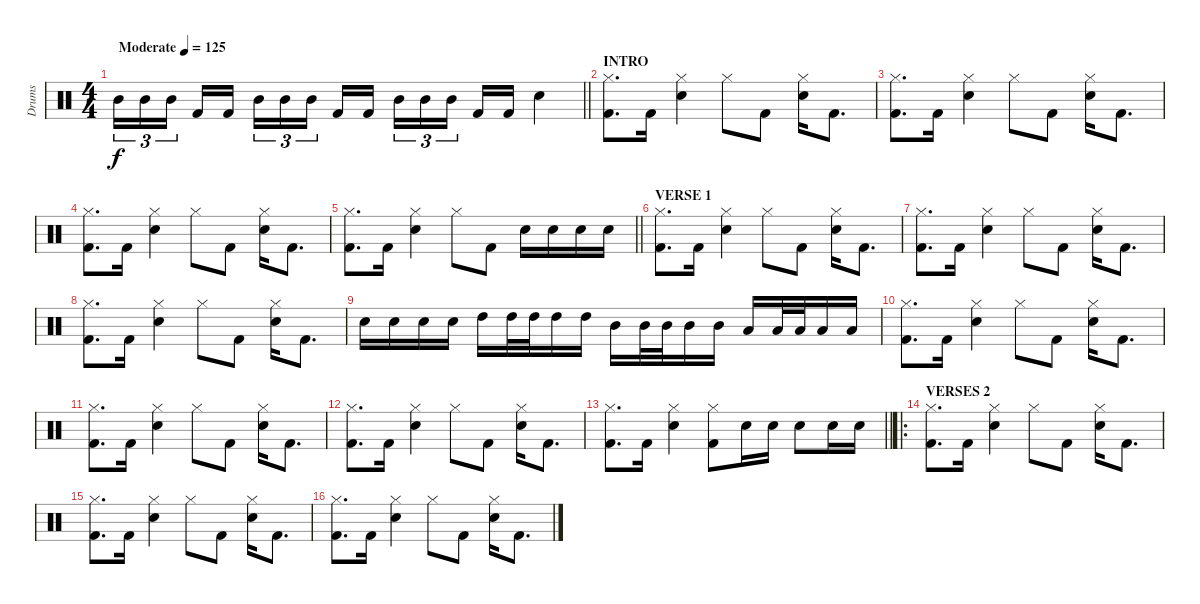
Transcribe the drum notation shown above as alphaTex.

\track ("Drums" "Drums") {instrument percussion}
\staff {score}
\articulation defaults
\ts (4 4)
\tempo (125 "Moderate")
\clef neutral
\barLineRight lightlight
\ks aminor "Mid Tom (hit)".16{tu (3 2) dy f} "Mid Tom (hit)".16{tu (3 2)} "Mid Tom (hit)".16{tu (3 2) beam splitsecondary} "Kick (hit) 2".16 "Kick (hit) 2".16 "Mid Tom (hit)".16{tu (3 2)} "Mid Tom (hit)".16{tu (3 2)} "Mid Tom (hit)".16{tu (3 2) beam splitsecondary} "Kick (hit) 2".16 "Kick (hit) 2".16 "Mid Tom (hit)".16{tu (3 2)} "Mid Tom (hit)".16{tu (3 2)} "Mid Tom (hit)".16{tu (3 2) beam splitsecondary} "Kick (hit) 2".16 "Kick (hit) 2".16 "Electric Snare (hit)".4
|
\section ("" "INTRO")
("Hi-Hat (closed)" "Kick (hit) 2").8{d} "Kick (hit) 2".16 ("Hi-Hat (closed)" "Electric Snare (hit)").4 "Hi-Hat (closed)".8 "Kick (hit) 2".8 ("Hi-Hat (closed)" "Electric Snare (hit)").16 "Kick (hit) 2".8{d} |
("Hi-Hat (closed)" "Kick (hit) 2").8{d} "Kick (hit) 2".16 ("Hi-Hat (closed)" "Electric Snare (hit)").4 "Hi-Hat (closed)".8 "Kick (hit) 2".8 ("Hi-Hat (closed)" "Electric Snare (hit)").16 "Kick (hit) 2".8{d} |
("Hi-Hat (closed)" "Kick (hit) 2").8{d} "Kick (hit) 2".16 ("Hi-Hat (closed)" "Electric Snare (hit)").4 "Hi-Hat (closed)".8 "Kick (hit) 2".8 ("Hi-Hat (closed)" "Electric Snare (hit)").16 "Kick (hit) 2".8{d} |
\barLineRight lightlight
("Hi-Hat (closed)" "Kick (hit) 2").8{d} "Kick (hit) 2".16 ("Hi-Hat (closed)" "Electric Snare (hit)").4 "Hi-Hat (closed)".8 "Kick (hit) 2".8 "Electric Snare (hit)".16 "Snare (hit)".16 "Snare (hit)".16 "Snare (hit)".16 |
\section ("" "VERSE 1")
("Hi-Hat (closed)" "Kick (hit) 2").8{d} "Kick (hit) 2".16 ("Hi-Hat (closed)" "Electric Snare (hit)").4 "Hi-Hat (closed)".8 "Kick (hit) 2".8 ("Hi-Hat (closed)" "Electric Snare (hit)").16 "Kick (hit) 2".8{d} |
("Hi-Hat (closed)" "Kick (hit) 2").8{d} "Kick (hit) 2".16 ("Hi-Hat (closed)" "Electric Snare (hit)").4 "Hi-Hat (closed)".8 "Kick (hit) 2".8 ("Hi-Hat (closed)" "Electric Snare (hit)").16 "Kick (hit) 2".8{d} |
("Hi-Hat (closed)" "Kick (hit) 2").8{d} "Kick (hit) 2".16 ("Hi-Hat (closed)" "Electric Snare (hit)").4 "Hi-Hat (closed)".8 "Kick (hit) 2".8 ("Hi-Hat (closed)" "Electric Snare (hit)").16 "Kick (hit) 2".8{d} |
"Electric Snare (hit)".16 "Electric Snare (hit)".16 "Electric Snare (hit)".16 "Electric Snare (hit)".16 "High Tom (hit)".16 "High Tom (hit)".32 "High Tom (hit)".32{beam splitsecondary} "High Tom (hit)".16 "High Tom (hit)".16 "Mid Tom (hit)".16 "Mid Tom (hit)".32 "Mid Tom (hit)".32{beam splitsecondary} "Mid Tom (hit)".16 "Mid Tom (hit)".16 "Low Tom (hit)".16 "Low Tom (hit)".32 "Low Tom (hit)".32{beam splitsecondary} "Low Tom (hit)".16 "Low Tom (hit)".16 |
("Hi-Hat (closed)" "Kick (hit) 2").8{d} "Kick (hit) 2".16 ("Hi-Hat (closed)" "Electric Snare (hit)").4 "Hi-Hat (closed)".8 "Kick (hit) 2".8 ("Hi-Hat (closed)" "Electric Snare (hit)").16 "Kick (hit) 2".8{d} |
("Hi-Hat (closed)" "Kick (hit) 2").8{d} "Kick (hit) 2".16 ("Hi-Hat (closed)" "Electric Snare (hit)").4 "Hi-Hat (closed)".8 "Kick (hit) 2".8 ("Hi-Hat (closed)" "Electric Snare (hit)").16 "Kick (hit) 2".8{d} |
("Hi-Hat (closed)" "Kick (hit) 2").8{d} "Kick (hit) 2".16 ("Hi-Hat (closed)" "Electric Snare (hit)").4 "Hi-Hat (closed)".8 "Kick (hit) 2".8 ("Hi-Hat (closed)" "Electric Snare (hit)").16 "Kick (hit) 2".8{d} |
\barLineRight lightlight
("Hi-Hat (closed)" "Kick (hit) 2").8{d} "Kick (hit) 2".16 ("Hi-Hat (closed)" "Electric Snare (hit)").4 ("Hi-Hat (closed)" "Kick (hit) 2").8 "Electric Snare (hit)".16 "Electric Snare (hit)".16 "Electric Snare (hit)".8 "Electric Snare (hit)".16 "Electric Snare (hit)".16 |
\ro
\section ("" "VERSES 2")
("Hi-Hat (closed)" "Kick (hit) 2").8{d} "Kick (hit) 2".16 ("Hi-Hat (closed)" "Electric Snare (hit)").4 "Hi-Hat (closed)".8 "Kick (hit) 2".8 ("Hi-Hat (closed)" "Electric Snare (hit)").16 "Kick (hit) 2".8{d} |
("Hi-Hat (closed)" "Kick (hit) 2").8{d} "Kick (hit) 2".16 ("Hi-Hat (closed)" "Electric Snare (hit)").4 "Hi-Hat (closed)".8 "Kick (hit) 2".8 ("Hi-Hat (closed)" "Electric Snare (hit)").16 "Kick (hit) 2".8{d} |
("Hi-Hat (closed)" "Kick (hit) 2").8{d} "Kick (hit) 2".16 ("Hi-Hat (closed)" "Electric Snare (hit)").4 "Hi-Hat (closed)".8 "Kick (hit) 2".8 ("Hi-Hat (closed)" "Electric Snare (hit)").16 "Kick (hit) 2".8{d}
